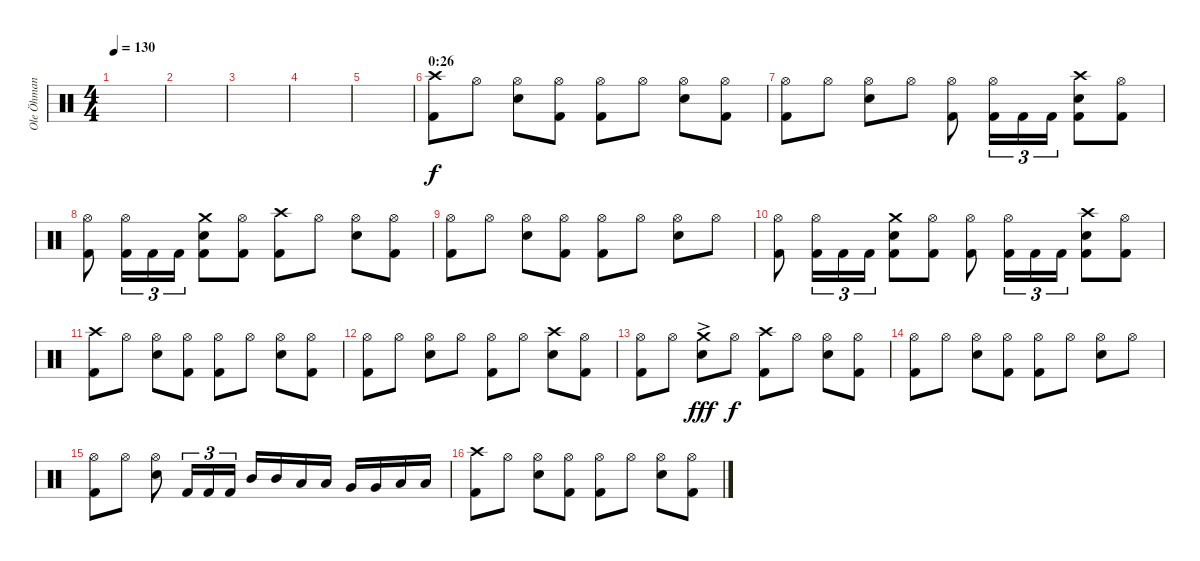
\track ("Ole Öhman" "Ole Öhman") {instrument percussion}
\staff {score}
\articulation defaults
\ts (4 4)
\tempo 130
\clef neutral
\ks c
|
|
|
|
|
\section ("" "0:26")
("Crash high (hit)" "Kick (hit) 2").8 "Hi-Hat (open)".8 ("Hi-Hat (open)" "Electric Snare (hit)").8 ("Hi-Hat (open)" "Kick (hit) 2").8 ("Hi-Hat (open)" "Kick (hit) 2").8 "Hi-Hat (open)".8 ("Hi-Hat (open)" "Electric Snare (hit)").8 ("Hi-Hat (open)" "Kick (hit) 2").8 |
("Hi-Hat (open)" "Kick (hit) 2").8 "Hi-Hat (open)".8 ("Hi-Hat (open)" "Electric Snare (hit)").8 "Hi-Hat (open)".8 ("Hi-Hat (open)" "Kick (hit) 2").8 ("Hi-Hat (open)" "Kick (hit) 2").16{tu (3 2)} "Kick (hit) 2".16{tu (3 2)} "Kick (hit) 2".16{tu (3 2)} ("Crash high (hit)" "Electric Snare (hit)" "Kick (hit) 2").8 ("Hi-Hat (open)" "Kick (hit) 2").8 |
("Hi-Hat (open)" "Kick (hit) 2").8 ("Hi-Hat (open)" "Kick (hit) 2").16{tu (3 2)} "Kick (hit) 2".16{tu (3 2)} "Kick (hit) 2".16{tu (3 2)} ("Crash medium (hit)" "Electric Snare (hit)" "Kick (hit) 2").8 ("Hi-Hat (open)" "Kick (hit) 2").8 ("Crash high (hit)" "Kick (hit) 2").8 "Hi-Hat (open)".8 ("Hi-Hat (open)" "Electric Snare (hit)").8 ("Hi-Hat (open)" "Kick (hit) 2").8 |
("Hi-Hat (open)" "Kick (hit) 2").8 "Hi-Hat (open)".8 ("Hi-Hat (open)" "Electric Snare (hit)").8 ("Hi-Hat (open)" "Kick (hit) 2").8 ("Hi-Hat (open)" "Kick (hit) 2").8 "Hi-Hat (open)".8 ("Hi-Hat (open)" "Electric Snare (hit)").8 "Hi-Hat (open)".8 |
("Hi-Hat (open)" "Kick (hit) 2").8 ("Hi-Hat (open)" "Kick (hit) 2").16{tu (3 2)} "Kick (hit) 2".16{tu (3 2)} "Kick (hit) 2".16{tu (3 2)} ("Crash medium (hit)" "Electric Snare (hit)" "Kick (hit) 2").8 ("Hi-Hat (open)" "Kick (hit) 2").8 ("Hi-Hat (open)" "Kick (hit) 2").8 ("Hi-Hat (open)" "Kick (hit) 2").16{tu (3 2)} "Kick (hit) 2".16{tu (3 2)} "Kick (hit) 2".16{tu (3 2)} ("Crash high (hit)" "Electric Snare (hit)" "Kick (hit) 2").8 ("Hi-Hat (open)" "Kick (hit) 2").8 |
("Crash high (hit)" "Kick (hit) 2").8 "Hi-Hat (open)".8 ("Hi-Hat (open)" "Electric Snare (hit)").8 ("Hi-Hat (open)" "Kick (hit) 2").8 ("Hi-Hat (open)" "Kick (hit) 2").8 "Hi-Hat (open)".8 ("Hi-Hat (open)" "Electric Snare (hit)").8 ("Hi-Hat (open)" "Kick (hit) 2").8 |
("Hi-Hat (open)" "Kick (hit) 2").8 "Hi-Hat (open)".8 ("Hi-Hat (open)" "Electric Snare (hit)").8 "Hi-Hat (open)".8 ("Hi-Hat (open)" "Kick (hit) 2").8 "Hi-Hat (open)".8 ("Crash high (hit)" "Electric Snare (hit)").8 ("Hi-Hat (open)" "Kick (hit) 2").8 |
("Hi-Hat (open)" "Kick (hit) 2").8 "Hi-Hat (open)".8 ("Crash medium (hit)" "Electric Snare (hit)"{ac}).8{dy fff} "Hi-Hat (open)".8{dy f} ("Crash high (hit)" "Kick (hit) 2").8 "Hi-Hat (open)".8 ("Hi-Hat (open)" "Electric Snare (hit)").8 ("Hi-Hat (open)" "Kick (hit) 2").8 |
("Hi-Hat (open)" "Kick (hit) 2").8 "Hi-Hat (open)".8 ("Hi-Hat (open)" "Electric Snare (hit)").8 ("Hi-Hat (open)" "Kick (hit) 2").8 ("Hi-Hat (open)" "Kick (hit) 2").8 "Hi-Hat (open)".8 ("Hi-Hat (open)" "Electric Snare (hit)").8 "Hi-Hat (open)".8 |
("Hi-Hat (open)" "Kick (hit) 2").8 "Hi-Hat (open)".8 ("Hi-Hat (open)" "Electric Snare (hit)").8 "Kick (hit) 2".16{tu (3 2)} "Kick (hit) 2".16{tu (3 2)} "Kick (hit) 2".16{tu (3 2)} "Mid Tom (hit)".16 "Mid Tom (hit)".16 "Low Tom (hit)".16 "Low Tom (hit)".16 "Very Low Tom (hit)".16 "Very Low Tom (hit)".16 "Low Floor Tom (hit)".16 "Low Floor Tom (hit)".16 |
("Crash high (hit)" "Kick (hit) 2").8 "Hi-Hat (open)".8 ("Hi-Hat (open)" "Electric Snare (hit)").8 ("Hi-Hat (open)" "Kick (hit) 2").8 ("Hi-Hat (open)" "Kick (hit) 2").8 "Hi-Hat (open)".8 ("Hi-Hat (open)" "Electric Snare (hit)").8 ("Hi-Hat (open)" "Kick (hit) 2").8
